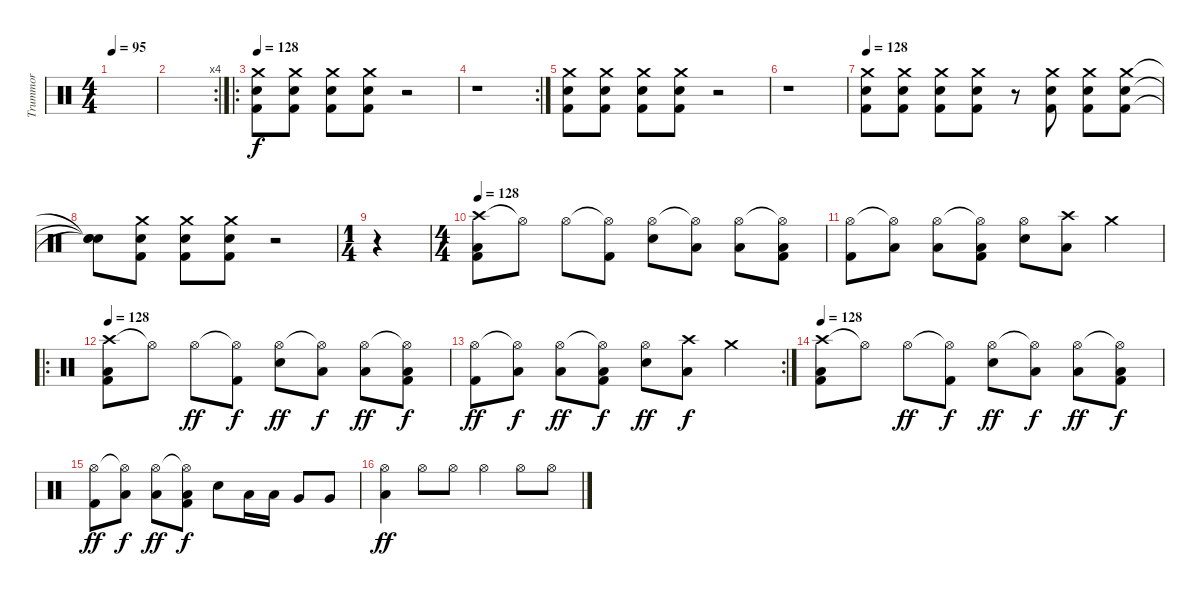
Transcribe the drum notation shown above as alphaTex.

\track ("Trummor" "Trummor") {instrument percussion}
\staff {score}
\articulation defaults
\ts (4 4)
\tempo 95
\clef neutral
\ks c
|
\rc 4
|
\ro
\tempo 128
("Crash medium (hit)" "Snare (hit) 2" "Kick (hit) 2").8 ("Crash medium (hit)" "Snare (hit) 2" "Kick (hit) 2").8 ("Crash medium (hit)" "Snare (hit) 2" "Kick (hit) 2").8 ("Crash medium (hit)" "Snare (hit) 2" "Kick (hit) 2").8 r.2 |
\rc 2
r.1 |
("Crash medium (hit)" "Snare (hit) 2" "Kick (hit) 2").8 ("Crash medium (hit)" "Snare (hit) 2" "Kick (hit) 2").8 ("Crash medium (hit)" "Snare (hit) 2" "Kick (hit) 2").8 ("Crash medium (hit)" "Snare (hit) 2" "Kick (hit) 2").8 r.2 |
r.1 |
\tempo 128
("Crash medium (hit)" "Snare (hit) 2" "Kick (hit) 2").8 ("Crash medium (hit)" "Snare (hit) 2" "Kick (hit) 2").8 ("Crash medium (hit)" "Snare (hit) 2" "Kick (hit) 2").8 ("Crash medium (hit)" "Snare (hit) 2" "Kick (hit) 2").8 r.8 ("Crash medium (hit)" "Snare (hit) 2" "Kick (hit) 2").8 ("Crash medium (hit)" "Snare (hit) 2" "Kick (hit) 2").8 ("Crash medium (hit)" "Snare (hit) 2" "Kick (hit) 2").8 |
("Snare (hit)"{t} "Snare (hit)"{t} "Snare (hit)"{t}).8 ("Crash medium (hit)" "Snare (hit) 2" "Kick (hit) 2").8 ("Crash medium (hit)" "Snare (hit) 2" "Kick (hit) 2").8 ("Crash medium (hit)" "Snare (hit) 2" "Kick (hit) 2").8 r.2 |
\ts (1 4)
r.4 |
\ts (4 4)
\tempo 128
("Crash high (hit)" "Low Floor Tom (hit)" "Kick (hit) 2").8 "Hi-Hat (open)"{t}.8 "Hi-Hat (open)".8 ("Hi-Hat (open)"{t} "Kick (hit) 2").8 ("Hi-Hat (open)" "Snare (hit) 2").8 ("Hi-Hat (open)"{t} "Low Floor Tom (hit)").8 ("Hi-Hat (open)" "Low Floor Tom (hit)").8 ("Hi-Hat (open)"{t} "Low Floor Tom (hit)" "Kick (hit) 2").8 |
("Hi-Hat (open)" "Kick (hit) 2").8 ("Hi-Hat (open)"{t} "Low Floor Tom (hit)").8 ("Hi-Hat (open)" "Low Floor Tom (hit)").8 ("Hi-Hat (open)"{t} "Low Floor Tom (hit)" "Kick (hit) 2").8 ("Hi-Hat (open)" "Snare (hit) 2").8 ("Crash high (hit)" "Low Floor Tom (hit)").8 "Crash medium (hit)".4 |
\ro
\tempo 128
("Crash high (hit)" "Low Floor Tom (hit)" "Kick (hit) 2").8 "Hi-Hat (open)"{t}.8 "Hi-Hat (open)".8{dy ff} ("Hi-Hat (open)"{t} "Kick (hit) 2").8{dy f} ("Hi-Hat (open)" "Snare (hit) 2").8{dy ff} ("Hi-Hat (open)"{t} "Low Floor Tom (hit)").8{dy f} ("Hi-Hat (open)" "Low Floor Tom (hit)").8{dy ff} ("Hi-Hat (open)"{t} "Low Floor Tom (hit)" "Kick (hit) 2").8{dy f} |
\rc 2
("Hi-Hat (open)" "Kick (hit) 2").8{dy ff} ("Hi-Hat (open)"{t} "Low Floor Tom (hit)").8{dy f} ("Hi-Hat (open)" "Low Floor Tom (hit)").8{dy ff} ("Hi-Hat (open)"{t} "Low Floor Tom (hit)" "Kick (hit) 2").8{dy f} ("Hi-Hat (open)" "Snare (hit) 2").8{dy ff} ("Crash high (hit)" "Low Floor Tom (hit)").8{dy f} "Crash medium (hit)".4 |
\tempo 128
("Crash high (hit)" "Low Floor Tom (hit)" "Kick (hit) 2").8 "Hi-Hat (open)"{t}.8 "Hi-Hat (open)".8{dy ff} ("Hi-Hat (open)"{t} "Kick (hit) 2").8{dy f} ("Hi-Hat (open)" "Snare (hit) 2").8{dy ff} ("Hi-Hat (open)"{t} "Low Floor Tom (hit)").8{dy f} ("Hi-Hat (open)" "Low Floor Tom (hit)").8{dy ff} ("Hi-Hat (open)"{t} "Low Floor Tom (hit)" "Kick (hit) 2").8{dy f} |
("Hi-Hat (open)" "Kick (hit) 2").8{dy ff} ("Hi-Hat (open)"{t} "Low Floor Tom (hit)").8{dy f} ("Hi-Hat (open)" "Low Floor Tom (hit)").8{dy ff} ("Hi-Hat (open)"{t} "Low Floor Tom (hit)" "Kick (hit) 2").8{dy f} "Snare (hit) 2".8 "Low Floor Tom (hit)".16 "Low Floor Tom (hit)".16 "Very Low Tom (hit)".8 "Very Low Tom (hit)".8 |
("Hi-Hat (open)" "Low Tom (hit)").4{dy ff} "Hi-Hat (open)".8 "Hi-Hat (open)".8 "Hi-Hat (open)".4 "Hi-Hat (open)".8 "Hi-Hat (open)".8
